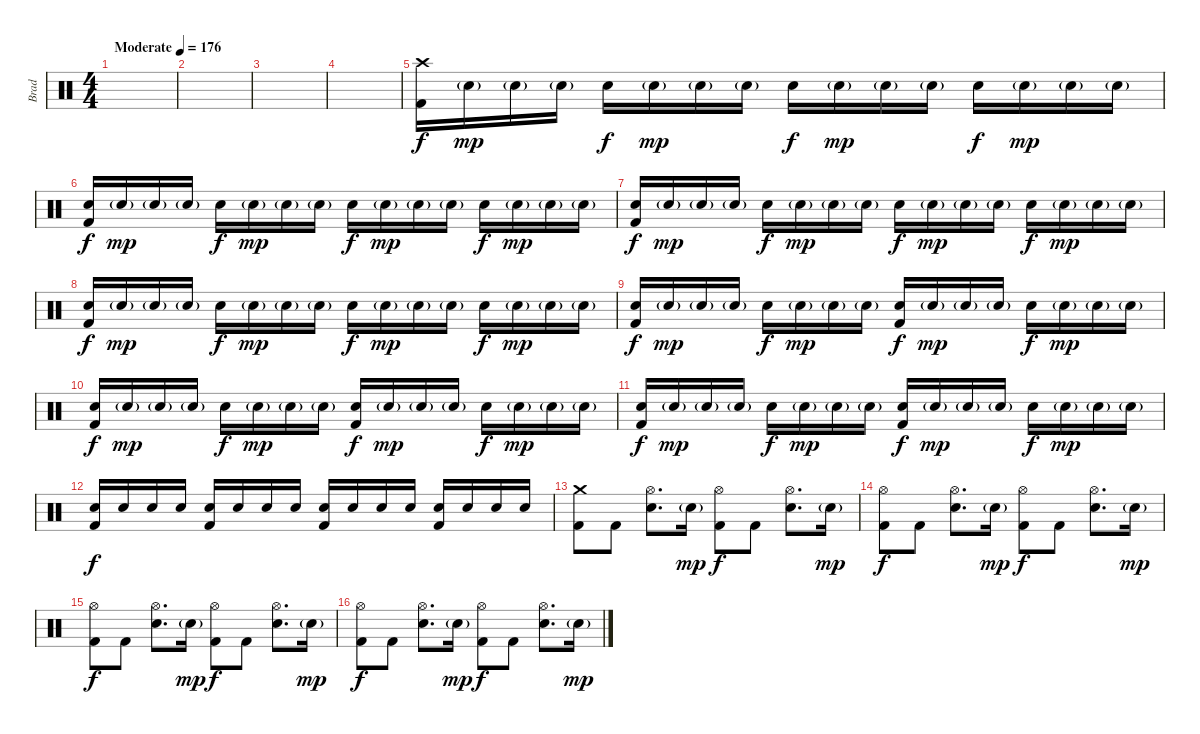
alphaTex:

\track ("Brad" "Brad") {instrument percussion}
\staff {score}
\articulation defaults
\ts (4 4)
\tempo (176 "Moderate")
\clef neutral
\ks c
|
|
|
|
("Crash high (hit)" "Kick (hit) 2").16 "Electric Snare (hit)"{g}.16{dy mp} "Electric Snare (hit)"{g}.16 "Electric Snare (hit)"{g}.16 "Electric Snare (hit)".16{dy f} "Electric Snare (hit)"{g}.16{dy mp} "Electric Snare (hit)"{g}.16 "Electric Snare (hit)"{g}.16 "Electric Snare (hit)".16{dy f} "Electric Snare (hit)"{g}.16{dy mp} "Electric Snare (hit)"{g}.16 "Electric Snare (hit)"{g}.16 "Electric Snare (hit)".16{dy f} "Electric Snare (hit)"{g}.16{dy mp} "Electric Snare (hit)"{g}.16 "Electric Snare (hit)"{g}.16 |
("Electric Snare (hit)" "Kick (hit) 2").16{dy f} "Electric Snare (hit)"{g}.16{dy mp} "Electric Snare (hit)"{g}.16 "Electric Snare (hit)"{g}.16 "Electric Snare (hit)".16{dy f} "Electric Snare (hit)"{g}.16{dy mp} "Electric Snare (hit)"{g}.16 "Electric Snare (hit)"{g}.16 "Electric Snare (hit)".16{dy f} "Electric Snare (hit)"{g}.16{dy mp} "Electric Snare (hit)"{g}.16 "Electric Snare (hit)"{g}.16 "Electric Snare (hit)".16{dy f} "Electric Snare (hit)"{g}.16{dy mp} "Electric Snare (hit)"{g}.16 "Electric Snare (hit)"{g}.16 |
("Electric Snare (hit)" "Kick (hit) 2").16{dy f} "Electric Snare (hit)"{g}.16{dy mp} "Electric Snare (hit)"{g}.16 "Electric Snare (hit)"{g}.16 "Electric Snare (hit)".16{dy f} "Electric Snare (hit)"{g}.16{dy mp} "Electric Snare (hit)"{g}.16 "Electric Snare (hit)"{g}.16 "Electric Snare (hit)".16{dy f} "Electric Snare (hit)"{g}.16{dy mp} "Electric Snare (hit)"{g}.16 "Electric Snare (hit)"{g}.16 "Electric Snare (hit)".16{dy f} "Electric Snare (hit)"{g}.16{dy mp} "Electric Snare (hit)"{g}.16 "Electric Snare (hit)"{g}.16 |
("Electric Snare (hit)" "Kick (hit) 2").16{dy f} "Electric Snare (hit)"{g}.16{dy mp} "Electric Snare (hit)"{g}.16 "Electric Snare (hit)"{g}.16 "Electric Snare (hit)".16{dy f} "Electric Snare (hit)"{g}.16{dy mp} "Electric Snare (hit)"{g}.16 "Electric Snare (hit)"{g}.16 "Electric Snare (hit)".16{dy f} "Electric Snare (hit)"{g}.16{dy mp} "Electric Snare (hit)"{g}.16 "Electric Snare (hit)"{g}.16 "Electric Snare (hit)".16{dy f} "Electric Snare (hit)"{g}.16{dy mp} "Electric Snare (hit)"{g}.16 "Electric Snare (hit)"{g}.16 |
("Electric Snare (hit)" "Kick (hit) 2").16{dy f} "Electric Snare (hit)"{g}.16{dy mp} "Electric Snare (hit)"{g}.16 "Electric Snare (hit)"{g}.16 "Electric Snare (hit)".16{dy f} "Electric Snare (hit)"{g}.16{dy mp} "Electric Snare (hit)"{g}.16 "Electric Snare (hit)"{g}.16 ("Electric Snare (hit)" "Kick (hit) 2").16{dy f} "Electric Snare (hit)"{g}.16{dy mp} "Electric Snare (hit)"{g}.16 "Electric Snare (hit)"{g}.16 "Electric Snare (hit)".16{dy f} "Electric Snare (hit)"{g}.16{dy mp} "Electric Snare (hit)"{g}.16 "Electric Snare (hit)"{g}.16 |
("Electric Snare (hit)" "Kick (hit) 2").16{dy f} "Electric Snare (hit)"{g}.16{dy mp} "Electric Snare (hit)"{g}.16 "Electric Snare (hit)"{g}.16 "Electric Snare (hit)".16{dy f} "Electric Snare (hit)"{g}.16{dy mp} "Electric Snare (hit)"{g}.16 "Electric Snare (hit)"{g}.16 ("Electric Snare (hit)" "Kick (hit) 2").16{dy f} "Electric Snare (hit)"{g}.16{dy mp} "Electric Snare (hit)"{g}.16 "Electric Snare (hit)"{g}.16 "Electric Snare (hit)".16{dy f} "Electric Snare (hit)"{g}.16{dy mp} "Electric Snare (hit)"{g}.16 "Electric Snare (hit)"{g}.16 |
("Electric Snare (hit)" "Kick (hit) 2").16{dy f} "Electric Snare (hit)"{g}.16{dy mp} "Electric Snare (hit)"{g}.16 "Electric Snare (hit)"{g}.16 "Electric Snare (hit)".16{dy f} "Electric Snare (hit)"{g}.16{dy mp} "Electric Snare (hit)"{g}.16 "Electric Snare (hit)"{g}.16 ("Electric Snare (hit)" "Kick (hit) 2").16{dy f} "Electric Snare (hit)"{g}.16{dy mp} "Electric Snare (hit)"{g}.16 "Electric Snare (hit)"{g}.16 "Electric Snare (hit)".16{dy f} "Electric Snare (hit)"{g}.16{dy mp} "Electric Snare (hit)"{g}.16 "Electric Snare (hit)"{g}.16 |
("Electric Snare (hit)" "Kick (hit) 2").16{dy f} "Electric Snare (hit)".16 "Electric Snare (hit)".16 "Electric Snare (hit)".16 ("Electric Snare (hit)" "Kick (hit) 2").16 "Electric Snare (hit)".16 "Electric Snare (hit)".16 "Electric Snare (hit)".16 ("Electric Snare (hit)" "Kick (hit) 2").16 "Electric Snare (hit)".16 "Electric Snare (hit)".16 "Electric Snare (hit)".16 ("Electric Snare (hit)" "Kick (hit) 2").16 "Electric Snare (hit)".16 "Electric Snare (hit)".16 "Electric Snare (hit)".16 |
("Crash medium (hit)" "Kick (hit) 2").8 "Kick (hit) 2".8 ("Hi-Hat (open)" "Electric Snare (hit)").8{d} "Electric Snare (hit)"{g}.16{dy mp} ("Hi-Hat (open)" "Kick (hit) 2").8{dy f} "Kick (hit) 2".8 ("Hi-Hat (open)" "Electric Snare (hit)").8{d} "Electric Snare (hit)"{g}.16{dy mp} |
("Hi-Hat (open)" "Kick (hit) 2").8{dy f} "Kick (hit) 2".8 ("Hi-Hat (open)" "Electric Snare (hit)").8{d} "Electric Snare (hit)"{g}.16{dy mp} ("Hi-Hat (open)" "Kick (hit) 2").8{dy f} "Kick (hit) 2".8 ("Hi-Hat (open)" "Electric Snare (hit)").8{d} "Electric Snare (hit)"{g}.16{dy mp} |
("Hi-Hat (open)" "Kick (hit) 2").8{dy f} "Kick (hit) 2".8 ("Hi-Hat (open)" "Electric Snare (hit)").8{d} "Electric Snare (hit)"{g}.16{dy mp} ("Hi-Hat (open)" "Kick (hit) 2").8{dy f} "Kick (hit) 2".8 ("Hi-Hat (open)" "Electric Snare (hit)").8{d} "Electric Snare (hit)"{g}.16{dy mp} |
("Hi-Hat (open)" "Kick (hit) 2").8{dy f} "Kick (hit) 2".8 ("Hi-Hat (open)" "Electric Snare (hit)").8{d} "Electric Snare (hit)"{g}.16{dy mp} ("Hi-Hat (open)" "Kick (hit) 2").8{dy f} "Kick (hit) 2".8 ("Hi-Hat (open)" "Electric Snare (hit)").8{d} "Electric Snare (hit)"{g}.16{dy mp}
